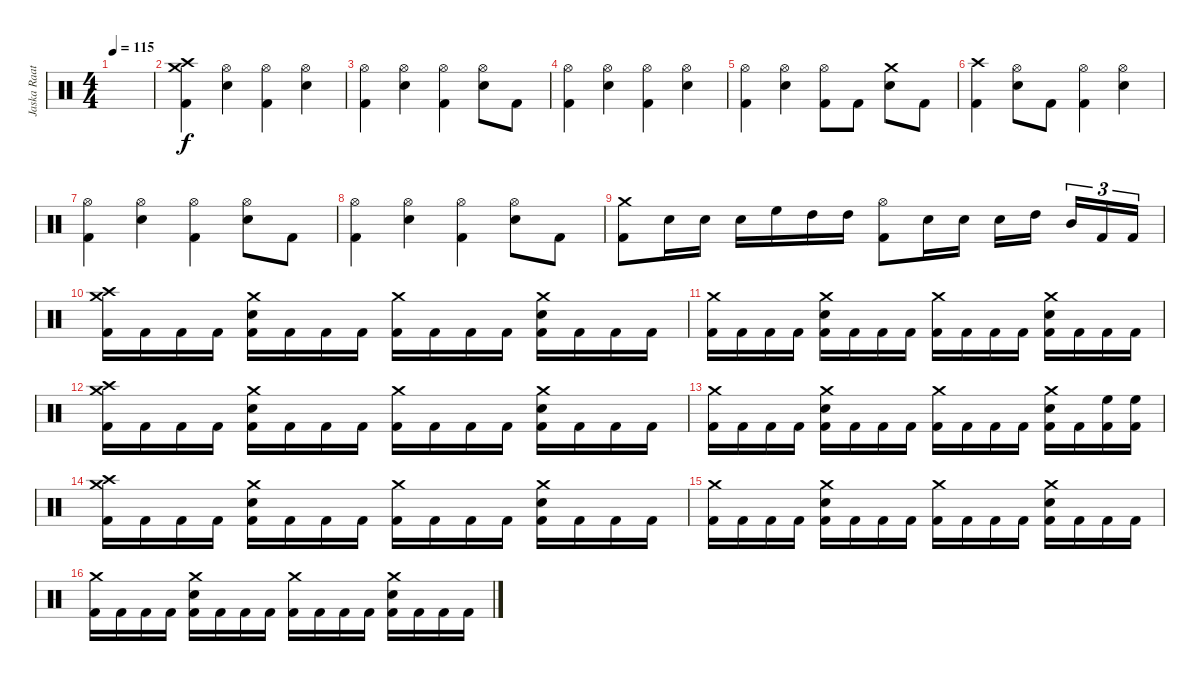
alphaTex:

\track ("Jaska Raatikainen" "Jaska Raat") {instrument percussion}
\staff {score}
\articulation defaults
\ts (4 4)
\tempo 115
\clef neutral
\ks c
|
("Crash high (hit)" "Crash medium (hit)" "Kick (hit) 2").4 ("Hi-Hat (open)" "Electric Snare (hit)").4 ("Hi-Hat (open)" "Kick (hit) 2").4 ("Hi-Hat (open)" "Electric Snare (hit)").4 |
("Hi-Hat (open)" "Kick (hit) 2").4 ("Hi-Hat (open)" "Electric Snare (hit)").4 ("Hi-Hat (open)" "Kick (hit) 2").4 ("Hi-Hat (open)" "Electric Snare (hit)").8 "Kick (hit) 2".8 |
("Hi-Hat (open)" "Kick (hit) 2").4 ("Hi-Hat (open)" "Electric Snare (hit)").4 ("Hi-Hat (open)" "Kick (hit) 2").4 ("Hi-Hat (open)" "Electric Snare (hit)").4 |
("Hi-Hat (open)" "Kick (hit) 2").4 ("Hi-Hat (open)" "Electric Snare (hit)").4 ("Hi-Hat (open)" "Kick (hit) 2").8 "Kick (hit) 2".8 ("Crash medium (hit)" "Electric Snare (hit)").8 "Kick (hit) 2".8 |
("Crash high (hit)" "Kick (hit) 2").4 ("Hi-Hat (open)" "Electric Snare (hit)").8 "Kick (hit) 2".8 ("Hi-Hat (open)" "Kick (hit) 2").4 ("Hi-Hat (open)" "Electric Snare (hit)").4 |
("Hi-Hat (open)" "Kick (hit) 2").4 ("Hi-Hat (open)" "Electric Snare (hit)").4 ("Hi-Hat (open)" "Kick (hit) 2").4 ("Hi-Hat (open)" "Electric Snare (hit)").8 "Kick (hit) 2".8 |
("Hi-Hat (open)" "Kick (hit) 2").4 ("Hi-Hat (open)" "Electric Snare (hit)").4 ("Hi-Hat (open)" "Kick (hit) 2").4 ("Hi-Hat (open)" "Electric Snare (hit)").8 "Kick (hit) 2".8 |
("Crash medium (hit)" "Kick (hit) 2").8 "Electric Snare (hit)".16 "Electric Snare (hit)".16 "Electric Snare (hit)".16 "High Floor Tom (hit)".16 "High Tom (hit)".16 "High Tom (hit)".16 ("Hi-Hat (open)" "Kick (hit) 2").8 "Electric Snare (hit)".16 "Electric Snare (hit)".16 "Electric Snare (hit)".16 "High Tom (hit)".16{beam splitsecondary} "Mid Tom (hit)".16{tu (3 2)} "Kick (hit) 2".16{tu (3 2)} "Kick (hit) 2".16{tu (3 2)} |
("Crash medium (hit)" "Crash high (hit)" "Kick (hit) 2").16 "Kick (hit) 2".16 "Kick (hit) 2".16 "Kick (hit) 2".16 ("Crash medium (hit)" "Electric Snare (hit)" "Kick (hit) 2").16 "Kick (hit) 2".16 "Kick (hit) 2".16 "Kick (hit) 2".16 ("Crash medium (hit)" "Kick (hit) 2").16 "Kick (hit) 2".16 "Kick (hit) 2".16 "Kick (hit) 2".16 ("Crash medium (hit)" "Electric Snare (hit)" "Kick (hit) 2").16 "Kick (hit) 2".16 "Kick (hit) 2".16 "Kick (hit) 2".16 |
("Crash medium (hit)" "Kick (hit) 2").16 "Kick (hit) 2".16 "Kick (hit) 2".16 "Kick (hit) 2".16 ("Crash medium (hit)" "Electric Snare (hit)" "Kick (hit) 2").16 "Kick (hit) 2".16 "Kick (hit) 2".16 "Kick (hit) 2".16 ("Crash medium (hit)" "Kick (hit) 2").16 "Kick (hit) 2".16 "Kick (hit) 2".16 "Kick (hit) 2".16 ("Crash medium (hit)" "Electric Snare (hit)" "Kick (hit) 2").16 "Kick (hit) 2".16 "Kick (hit) 2".16 "Kick (hit) 2".16 |
("Crash medium (hit)" "Crash high (hit)" "Kick (hit) 2").16 "Kick (hit) 2".16 "Kick (hit) 2".16 "Kick (hit) 2".16 ("Crash medium (hit)" "Electric Snare (hit)" "Kick (hit) 2").16 "Kick (hit) 2".16 "Kick (hit) 2".16 "Kick (hit) 2".16 ("Crash medium (hit)" "Kick (hit) 2").16 "Kick (hit) 2".16 "Kick (hit) 2".16 "Kick (hit) 2".16 ("Crash medium (hit)" "Electric Snare (hit)" "Kick (hit) 2").16 "Kick (hit) 2".16 "Kick (hit) 2".16 "Kick (hit) 2".16 |
("Crash medium (hit)" "Kick (hit) 2").16 "Kick (hit) 2".16 "Kick (hit) 2".16 "Kick (hit) 2".16 ("Crash medium (hit)" "Electric Snare (hit)" "Kick (hit) 2").16 "Kick (hit) 2".16 "Kick (hit) 2".16 "Kick (hit) 2".16 ("Crash medium (hit)" "Kick (hit) 2").16 "Kick (hit) 2".16 "Kick (hit) 2".16 "Kick (hit) 2".16 ("Crash medium (hit)" "Electric Snare (hit)" "Kick (hit) 2").16 "Kick (hit) 2".16 ("High Floor Tom (hit)" "Kick (hit) 2").16 ("High Floor Tom (hit)" "Kick (hit) 2").16 |
("Crash medium (hit)" "Crash high (hit)" "Kick (hit) 2").16 "Kick (hit) 2".16 "Kick (hit) 2".16 "Kick (hit) 2".16 ("Crash medium (hit)" "Electric Snare (hit)" "Kick (hit) 2").16 "Kick (hit) 2".16 "Kick (hit) 2".16 "Kick (hit) 2".16 ("Crash medium (hit)" "Kick (hit) 2").16 "Kick (hit) 2".16 "Kick (hit) 2".16 "Kick (hit) 2".16 ("Crash medium (hit)" "Electric Snare (hit)" "Kick (hit) 2").16 "Kick (hit) 2".16 "Kick (hit) 2".16 "Kick (hit) 2".16 |
("Crash medium (hit)" "Kick (hit) 2").16 "Kick (hit) 2".16 "Kick (hit) 2".16 "Kick (hit) 2".16 ("Crash medium (hit)" "Electric Snare (hit)" "Kick (hit) 2").16 "Kick (hit) 2".16 "Kick (hit) 2".16 "Kick (hit) 2".16 ("Crash medium (hit)" "Kick (hit) 2").16 "Kick (hit) 2".16 "Kick (hit) 2".16 "Kick (hit) 2".16 ("Crash medium (hit)" "Electric Snare (hit)" "Kick (hit) 2").16 "Kick (hit) 2".16 "Kick (hit) 2".16 "Kick (hit) 2".16 |
("Crash medium (hit)" "Kick (hit) 2").16 "Kick (hit) 2".16 "Kick (hit) 2".16 "Kick (hit) 2".16 ("Crash medium (hit)" "Electric Snare (hit)" "Kick (hit) 2").16 "Kick (hit) 2".16 "Kick (hit) 2".16 "Kick (hit) 2".16 ("Crash medium (hit)" "Kick (hit) 2").16 "Kick (hit) 2".16 "Kick (hit) 2".16 "Kick (hit) 2".16 ("Crash medium (hit)" "Electric Snare (hit)" "Kick (hit) 2").16 "Kick (hit) 2".16 "Kick (hit) 2".16 "Kick (hit) 2".16
